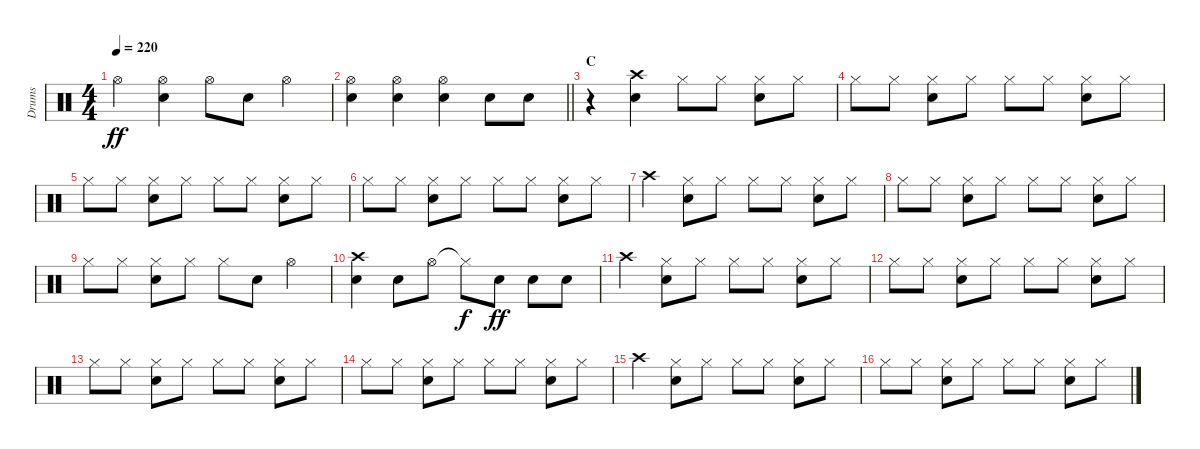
\track ("Drums" "Drums") {instrument percussion}
\staff {score}
\articulation defaults
\ts (4 4)
\tempo 220
\clef neutral
\ks c "Hi-Hat (open)".4{dy ff}
("Hi-Hat (open)" "Snare (hit) 2").4 "Hi-Hat (open)".8 "Snare (hit) 2".8 "Hi-Hat (open)".4 |
\barLineRight lightlight
("Hi-Hat (open)" "Snare (hit) 2").4 ("Hi-Hat (open)" "Snare (hit) 2").4 ("Snare (hit) 2" "Hi-Hat (open)").4 "Snare (hit) 2".8 "Snare (hit) 2".8 |
\section ("" "C")
r.4 ("Crash high (hit)" "Snare (hit) 2").4 "Hi-Hat (closed)".8 "Hi-Hat (closed)".8 ("Hi-Hat (closed)" "Snare (hit) 2").8 "Hi-Hat (closed)".8 |
"Hi-Hat (closed)".8 "Hi-Hat (closed)".8 ("Hi-Hat (closed)" "Snare (hit) 2").8 "Hi-Hat (closed)".8 "Hi-Hat (closed)".8 "Hi-Hat (closed)".8 ("Hi-Hat (closed)" "Snare (hit) 2").8 "Hi-Hat (closed)".8 |
"Hi-Hat (closed)".8 "Hi-Hat (closed)".8 ("Hi-Hat (closed)" "Snare (hit) 2").8 "Hi-Hat (closed)".8 "Hi-Hat (closed)".8 "Hi-Hat (closed)".8 ("Hi-Hat (closed)" "Snare (hit) 2").8 "Hi-Hat (closed)".8 |
"Hi-Hat (closed)".8 "Hi-Hat (closed)".8 ("Hi-Hat (closed)" "Snare (hit) 2").8 "Hi-Hat (closed)".8 "Hi-Hat (closed)".8 "Hi-Hat (closed)".8 ("Hi-Hat (closed)" "Snare (hit) 2").8 "Hi-Hat (closed)".8 |
"Crash high (hit)".4 ("Hi-Hat (closed)" "Snare (hit) 2").8 "Hi-Hat (closed)".8 "Hi-Hat (closed)".8 "Hi-Hat (closed)".8 ("Hi-Hat (closed)" "Snare (hit) 2").8 "Hi-Hat (closed)".8 |
"Hi-Hat (closed)".8 "Hi-Hat (closed)".8 ("Hi-Hat (closed)" "Snare (hit) 2").8 "Hi-Hat (closed)".8 "Hi-Hat (closed)".8 "Hi-Hat (closed)".8 ("Hi-Hat (closed)" "Snare (hit) 2").8 "Hi-Hat (closed)".8 |
"Hi-Hat (closed)".8 "Hi-Hat (closed)".8 ("Hi-Hat (closed)" "Snare (hit) 2").8 "Hi-Hat (closed)".8 "Hi-Hat (closed)".8 "Snare (hit) 2".8 "Hi-Hat (open)".4 |
("Crash high (hit)" "Snare (hit) 2").4 "Snare (hit) 2".8 "Hi-Hat (open)".8 "Hi-Hat (closed)"{t}.8{dy f} "Snare (hit) 2".8{dy ff} "Snare (hit) 2".8 "Snare (hit) 2".8 |
"Crash high (hit)".4 ("Hi-Hat (closed)" "Snare (hit) 2").8 "Hi-Hat (closed)".8 "Hi-Hat (closed)".8 "Hi-Hat (closed)".8 ("Hi-Hat (closed)" "Snare (hit) 2").8 "Hi-Hat (closed)".8 |
"Hi-Hat (closed)".8 "Hi-Hat (closed)".8 ("Hi-Hat (closed)" "Snare (hit) 2").8 "Hi-Hat (closed)".8 "Hi-Hat (closed)".8 "Hi-Hat (closed)".8 ("Hi-Hat (closed)" "Snare (hit) 2").8 "Hi-Hat (closed)".8 |
"Hi-Hat (closed)".8 "Hi-Hat (closed)".8 ("Hi-Hat (closed)" "Snare (hit) 2").8 "Hi-Hat (closed)".8 "Hi-Hat (closed)".8 "Hi-Hat (closed)".8 ("Hi-Hat (closed)" "Snare (hit) 2").8 "Hi-Hat (closed)".8 |
"Hi-Hat (closed)".8 "Hi-Hat (closed)".8 ("Hi-Hat (closed)" "Snare (hit) 2").8 "Hi-Hat (closed)".8 "Hi-Hat (closed)".8 "Hi-Hat (closed)".8 ("Hi-Hat (closed)" "Snare (hit) 2").8 "Hi-Hat (closed)".8 |
"Crash high (hit)".4 ("Hi-Hat (closed)" "Snare (hit) 2").8 "Hi-Hat (closed)".8 "Hi-Hat (closed)".8 "Hi-Hat (closed)".8 ("Hi-Hat (closed)" "Snare (hit) 2").8 "Hi-Hat (closed)".8 |
"Hi-Hat (closed)".8 "Hi-Hat (closed)".8 ("Hi-Hat (closed)" "Snare (hit) 2").8 "Hi-Hat (closed)".8 "Hi-Hat (closed)".8 "Hi-Hat (closed)".8 ("Hi-Hat (closed)" "Snare (hit) 2").8 "Hi-Hat (closed)".8
